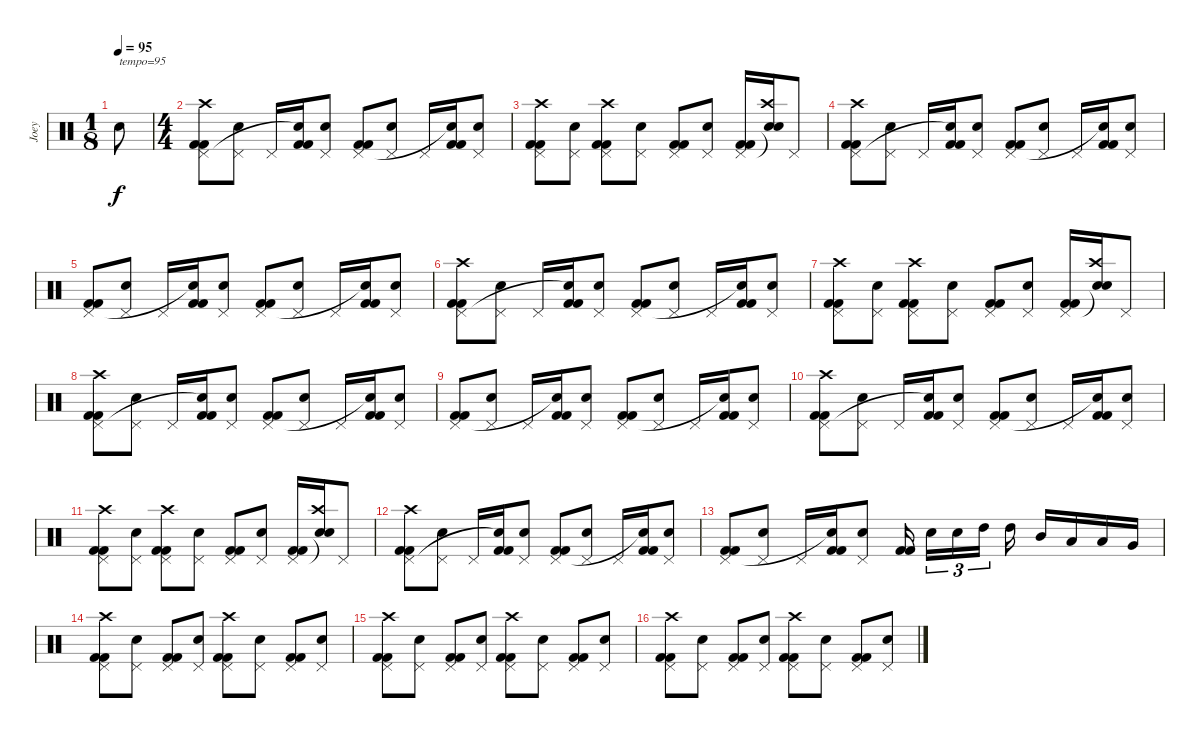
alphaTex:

\track ("Joey" "Joey") {instrument percussion}
\staff {score}
\articulation defaults
\ts (1 8)
\tempo 95
\clef neutral
\ks c "Electric Snare (hit)".8{txt "tempo=95" dy f}
|
\ts (4 4)
("Kick (hit) 2" "Kick (hit) 2" "Pedal Hi-Hat (hit)" "Crash high (hit)").8 ("Electric Snare (hit)" "Pedal Hi-Hat (hit)").8 "Pedal Hi-Hat (hit)".16 ("Kick (hit) 2" "Kick (hit) 2" "Snare (hit)"{t}).16 ("Electric Snare (hit)" "Pedal Hi-Hat (hit)").8 ("Kick (hit) 2" "Kick (hit) 2" "Pedal Hi-Hat (hit)").8 ("Electric Snare (hit)" "Pedal Hi-Hat (hit)").8 "Pedal Hi-Hat (hit)".16 ("Kick (hit) 2" "Kick (hit) 2" "Snare (hit)"{t}).16 ("Electric Snare (hit)" "Pedal Hi-Hat (hit)").8 |
("Kick (hit) 2" "Kick (hit) 2" "Crash high (hit)" "Pedal Hi-Hat (hit)").8 ("Electric Snare (hit)" "Pedal Hi-Hat (hit)").8 ("Kick (hit) 2" "Kick (hit) 2" "Crash high (hit)" "Pedal Hi-Hat (hit)").8 ("Electric Snare (hit)" "Pedal Hi-Hat (hit)").8 ("Kick (hit) 2" "Kick (hit) 2" "Pedal Hi-Hat (hit)").8 ("Electric Snare (hit)" "Pedal Hi-Hat (hit)").8 ("Kick (hit) 2" "Kick (hit) 2" "Pedal Hi-Hat (hit)").16 ("Electric Snare (hit)" "Crash high (hit)" "Snare (hit)"{t}).16 "Pedal Hi-Hat (hit)".8 |
("Kick (hit) 2" "Kick (hit) 2" "Pedal Hi-Hat (hit)" "Crash high (hit)").8 ("Electric Snare (hit)" "Pedal Hi-Hat (hit)").8 "Pedal Hi-Hat (hit)".16 ("Kick (hit) 2" "Kick (hit) 2" "Snare (hit)"{t}).16 ("Electric Snare (hit)" "Pedal Hi-Hat (hit)").8 ("Kick (hit) 2" "Kick (hit) 2" "Pedal Hi-Hat (hit)").8 ("Electric Snare (hit)" "Pedal Hi-Hat (hit)").8 "Pedal Hi-Hat (hit)".16 ("Kick (hit) 2" "Kick (hit) 2" "Snare (hit)"{t}).16 ("Electric Snare (hit)" "Pedal Hi-Hat (hit)").8 |
("Kick (hit) 2" "Kick (hit) 2" "Pedal Hi-Hat (hit)").8 ("Electric Snare (hit)" "Pedal Hi-Hat (hit)").8 "Pedal Hi-Hat (hit)".16 ("Kick (hit) 2" "Kick (hit) 2" "Snare (hit)"{t}).16 ("Electric Snare (hit)" "Pedal Hi-Hat (hit)").8 ("Kick (hit) 2" "Kick (hit) 2" "Pedal Hi-Hat (hit)").8 ("Electric Snare (hit)" "Pedal Hi-Hat (hit)").8 "Pedal Hi-Hat (hit)".16 ("Kick (hit) 2" "Kick (hit) 2" "Snare (hit)"{t}).16 ("Electric Snare (hit)" "Pedal Hi-Hat (hit)").8 |
("Kick (hit) 2" "Kick (hit) 2" "Pedal Hi-Hat (hit)" "Crash high (hit)").8 ("Electric Snare (hit)" "Pedal Hi-Hat (hit)").8 "Pedal Hi-Hat (hit)".16 ("Kick (hit) 2" "Kick (hit) 2" "Snare (hit)"{t}).16 ("Electric Snare (hit)" "Pedal Hi-Hat (hit)").8 ("Kick (hit) 2" "Kick (hit) 2" "Pedal Hi-Hat (hit)").8 ("Electric Snare (hit)" "Pedal Hi-Hat (hit)").8 "Pedal Hi-Hat (hit)".16 ("Kick (hit) 2" "Kick (hit) 2" "Snare (hit)"{t}).16 ("Electric Snare (hit)" "Pedal Hi-Hat (hit)").8 |
("Kick (hit) 2" "Kick (hit) 2" "Crash high (hit)" "Pedal Hi-Hat (hit)").8 ("Electric Snare (hit)" "Pedal Hi-Hat (hit)").8 ("Kick (hit) 2" "Kick (hit) 2" "Crash high (hit)" "Pedal Hi-Hat (hit)").8 ("Electric Snare (hit)" "Pedal Hi-Hat (hit)").8 ("Kick (hit) 2" "Kick (hit) 2" "Pedal Hi-Hat (hit)").8 ("Electric Snare (hit)" "Pedal Hi-Hat (hit)").8 ("Kick (hit) 2" "Kick (hit) 2" "Pedal Hi-Hat (hit)").16 ("Electric Snare (hit)" "Crash high (hit)" "Snare (hit)"{t}).16 "Pedal Hi-Hat (hit)".8 |
("Kick (hit) 2" "Kick (hit) 2" "Pedal Hi-Hat (hit)" "Crash high (hit)").8 ("Electric Snare (hit)" "Pedal Hi-Hat (hit)").8 "Pedal Hi-Hat (hit)".16 ("Kick (hit) 2" "Kick (hit) 2" "Snare (hit)"{t}).16 ("Electric Snare (hit)" "Pedal Hi-Hat (hit)").8 ("Kick (hit) 2" "Kick (hit) 2" "Pedal Hi-Hat (hit)").8 ("Electric Snare (hit)" "Pedal Hi-Hat (hit)").8 "Pedal Hi-Hat (hit)".16 ("Kick (hit) 2" "Kick (hit) 2" "Snare (hit)"{t}).16 ("Electric Snare (hit)" "Pedal Hi-Hat (hit)").8 |
("Kick (hit) 2" "Kick (hit) 2" "Pedal Hi-Hat (hit)").8 ("Electric Snare (hit)" "Pedal Hi-Hat (hit)").8 "Pedal Hi-Hat (hit)".16 ("Kick (hit) 2" "Kick (hit) 2" "Snare (hit)"{t}).16 ("Electric Snare (hit)" "Pedal Hi-Hat (hit)").8 ("Kick (hit) 2" "Kick (hit) 2" "Pedal Hi-Hat (hit)").8 ("Electric Snare (hit)" "Pedal Hi-Hat (hit)").8 "Pedal Hi-Hat (hit)".16 ("Kick (hit) 2" "Kick (hit) 2" "Snare (hit)"{t}).16 ("Electric Snare (hit)" "Pedal Hi-Hat (hit)").8 |
("Kick (hit) 2" "Kick (hit) 2" "Pedal Hi-Hat (hit)" "Crash high (hit)").8 ("Electric Snare (hit)" "Pedal Hi-Hat (hit)").8 "Pedal Hi-Hat (hit)".16 ("Kick (hit) 2" "Kick (hit) 2" "Snare (hit)"{t}).16 ("Electric Snare (hit)" "Pedal Hi-Hat (hit)").8 ("Kick (hit) 2" "Kick (hit) 2" "Pedal Hi-Hat (hit)").8 ("Electric Snare (hit)" "Pedal Hi-Hat (hit)").8 "Pedal Hi-Hat (hit)".16 ("Kick (hit) 2" "Kick (hit) 2" "Snare (hit)"{t}).16 ("Electric Snare (hit)" "Pedal Hi-Hat (hit)").8 |
("Kick (hit) 2" "Kick (hit) 2" "Crash high (hit)" "Pedal Hi-Hat (hit)").8 ("Electric Snare (hit)" "Pedal Hi-Hat (hit)").8 ("Kick (hit) 2" "Kick (hit) 2" "Crash high (hit)" "Pedal Hi-Hat (hit)").8 ("Electric Snare (hit)" "Pedal Hi-Hat (hit)").8 ("Kick (hit) 2" "Kick (hit) 2" "Pedal Hi-Hat (hit)").8 ("Electric Snare (hit)" "Pedal Hi-Hat (hit)").8 ("Kick (hit) 2" "Kick (hit) 2" "Pedal Hi-Hat (hit)").16 ("Electric Snare (hit)" "Crash high (hit)" "Snare (hit)"{t}).16 "Pedal Hi-Hat (hit)".8 |
("Kick (hit) 2" "Kick (hit) 2" "Pedal Hi-Hat (hit)" "Crash high (hit)").8 ("Electric Snare (hit)" "Pedal Hi-Hat (hit)").8 "Pedal Hi-Hat (hit)".16 ("Kick (hit) 2" "Kick (hit) 2" "Snare (hit)"{t}).16 ("Electric Snare (hit)" "Pedal Hi-Hat (hit)").8 ("Kick (hit) 2" "Kick (hit) 2" "Pedal Hi-Hat (hit)").8 ("Electric Snare (hit)" "Pedal Hi-Hat (hit)").8 "Pedal Hi-Hat (hit)".16 ("Kick (hit) 2" "Kick (hit) 2" "Snare (hit)"{t}).16 ("Electric Snare (hit)" "Pedal Hi-Hat (hit)").8 |
("Kick (hit) 2" "Kick (hit) 2" "Pedal Hi-Hat (hit)").8 ("Electric Snare (hit)" "Pedal Hi-Hat (hit)").8 "Pedal Hi-Hat (hit)".16 ("Kick (hit) 2" "Kick (hit) 2" "Snare (hit)"{t}).16 ("Electric Snare (hit)" "Pedal Hi-Hat (hit)").8 ("Kick (hit) 2" "Kick (hit) 2").16 "Electric Snare (hit)".16{tu (3 2)} "Electric Snare (hit)".16{tu (3 2)} "High Tom (hit)".16{tu (3 2)} "High Tom (hit)".16 "Mid Tom (hit)".16 "Low Tom (hit)".16 "Low Tom (hit)".16 "Very Low Tom (hit)".16 |
("Kick (hit) 2" "Kick (hit) 2" "Crash high (hit)" "Pedal Hi-Hat (hit)").8 ("Electric Snare (hit)" "Pedal Hi-Hat (hit)").8 ("Kick (hit) 2" "Kick (hit) 2" "Pedal Hi-Hat (hit)").8 ("Electric Snare (hit)" "Pedal Hi-Hat (hit)").8 ("Kick (hit) 2" "Kick (hit) 2" "Crash high (hit)" "Pedal Hi-Hat (hit)").8 ("Electric Snare (hit)" "Pedal Hi-Hat (hit)").8 ("Kick (hit) 2" "Kick (hit) 2" "Pedal Hi-Hat (hit)").8 ("Electric Snare (hit)" "Pedal Hi-Hat (hit)").8 |
("Kick (hit) 2" "Kick (hit) 2" "Crash high (hit)" "Pedal Hi-Hat (hit)").8 ("Electric Snare (hit)" "Pedal Hi-Hat (hit)").8 ("Kick (hit) 2" "Kick (hit) 2" "Pedal Hi-Hat (hit)").8 ("Electric Snare (hit)" "Pedal Hi-Hat (hit)").8 ("Kick (hit) 2" "Kick (hit) 2" "Crash high (hit)" "Pedal Hi-Hat (hit)").8 ("Electric Snare (hit)" "Pedal Hi-Hat (hit)").8 ("Kick (hit) 2" "Kick (hit) 2" "Pedal Hi-Hat (hit)").8 ("Electric Snare (hit)" "Pedal Hi-Hat (hit)").8 |
("Kick (hit) 2" "Kick (hit) 2" "Crash high (hit)" "Pedal Hi-Hat (hit)").8 ("Electric Snare (hit)" "Pedal Hi-Hat (hit)").8 ("Kick (hit) 2" "Kick (hit) 2" "Pedal Hi-Hat (hit)").8 ("Electric Snare (hit)" "Pedal Hi-Hat (hit)").8 ("Kick (hit) 2" "Kick (hit) 2" "Crash high (hit)" "Pedal Hi-Hat (hit)").8 ("Electric Snare (hit)" "Pedal Hi-Hat (hit)").8 ("Kick (hit) 2" "Kick (hit) 2" "Pedal Hi-Hat (hit)").8 ("Electric Snare (hit)" "Pedal Hi-Hat (hit)").8
